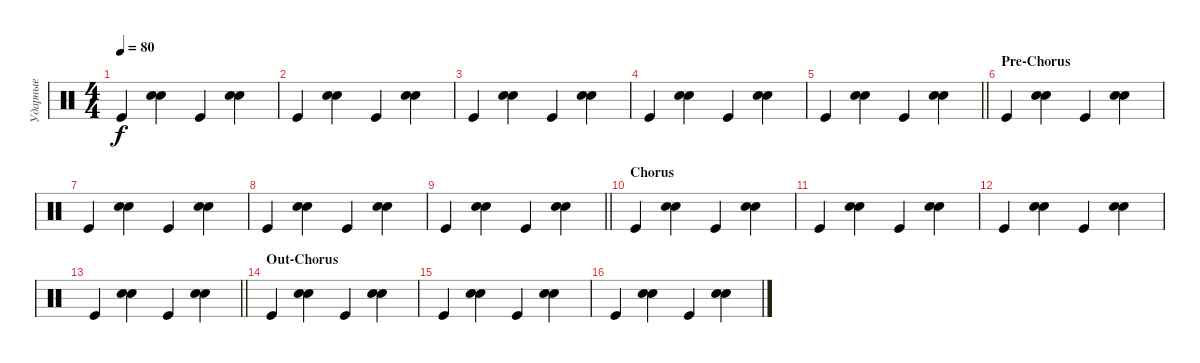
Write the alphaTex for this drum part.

\track ("Ударные" "Ударные") {instrument percussion}
\staff {score}
\articulation defaults
\ts (4 4)
\tempo 80
\clef neutral
\ks aminor "Kick (hit)".4{dy f}
("Snare (hit) 2" "Snare (hit) 2").4{bd 120} "Kick (hit)".4 ("Snare (hit) 2" "Snare (hit) 2").4{bd 120} |
"Kick (hit)".4 ("Snare (hit) 2" "Snare (hit) 2").4{bd 120} "Kick (hit)".4 ("Snare (hit) 2" "Snare (hit) 2").4{bd 120} |
"Kick (hit)".4 ("Snare (hit) 2" "Snare (hit) 2").4{bd 120} "Kick (hit)".4 ("Snare (hit) 2" "Snare (hit) 2").4{bd 120} |
"Kick (hit)".4 ("Snare (hit) 2" "Snare (hit) 2").4{bd 120} "Kick (hit)".4 ("Snare (hit) 2" "Snare (hit) 2").4{bd 120} |
\barLineRight lightlight "Kick (hit)".4
("Snare (hit) 2" "Snare (hit) 2").4{bd 120} "Kick (hit)".4 ("Snare (hit) 2" "Snare (hit) 2").4{bd 120} |
\section ("" "Pre-Chorus")
"Kick (hit)".4 ("Snare (hit) 2" "Snare (hit) 2").4{bd 120} "Kick (hit)".4 ("Snare (hit) 2" "Snare (hit) 2").4{bd 120} |
"Kick (hit)".4 ("Snare (hit) 2" "Snare (hit) 2").4{bd 120} "Kick (hit)".4 ("Snare (hit) 2" "Snare (hit) 2").4{bd 120} |
"Kick (hit)".4 ("Snare (hit) 2" "Snare (hit) 2").4{bd 120} "Kick (hit)".4 ("Snare (hit) 2" "Snare (hit) 2").4{bd 120} |
\barLineRight lightlight "Kick (hit)".4
("Snare (hit) 2" "Snare (hit) 2").4{bd 120} "Kick (hit)".4 ("Snare (hit) 2" "Snare (hit) 2").4{bd 120} |
\section ("" "Chorus")
"Kick (hit)".4 ("Snare (hit) 2" "Snare (hit) 2").4{bd 120} "Kick (hit)".4 ("Snare (hit) 2" "Snare (hit) 2").4{bd 120} |
"Kick (hit)".4 ("Snare (hit) 2" "Snare (hit) 2").4{bd 120} "Kick (hit)".4 ("Snare (hit) 2" "Snare (hit) 2").4{bd 120} |
"Kick (hit)".4 ("Snare (hit) 2" "Snare (hit) 2").4{bd 120} "Kick (hit)".4 ("Snare (hit) 2" "Snare (hit) 2").4{bd 120} |
\barLineRight lightlight "Kick (hit)".4
("Snare (hit) 2" "Snare (hit) 2").4{bd 120} "Kick (hit)".4 ("Snare (hit) 2" "Snare (hit) 2").4{bd 120} |
\section ("" "Out-Chorus")
"Kick (hit)".4 ("Snare (hit) 2" "Snare (hit) 2").4{bd 120} "Kick (hit)".4 ("Snare (hit) 2" "Snare (hit) 2").4{bd 120} |
"Kick (hit)".4 ("Snare (hit) 2" "Snare (hit) 2").4{bd 120} "Kick (hit)".4 ("Snare (hit) 2" "Snare (hit) 2").4{bd 120} |
"Kick (hit)".4 ("Snare (hit) 2" "Snare (hit) 2").4{bd 120} "Kick (hit)".4 ("Snare (hit) 2" "Snare (hit) 2").4{bd 120}
